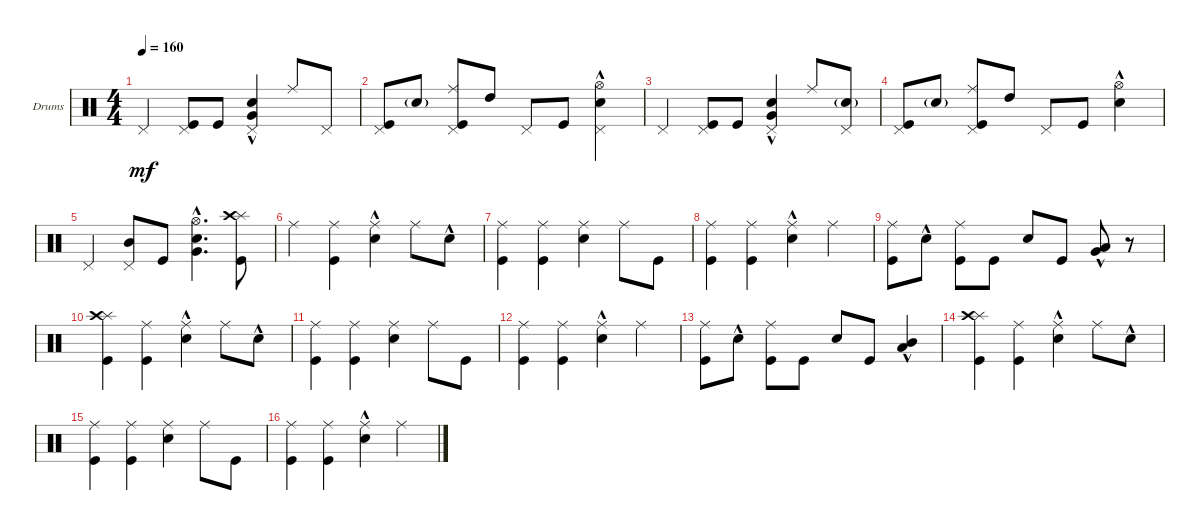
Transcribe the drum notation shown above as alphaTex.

\defaultSystemsLayout 4
\bracketExtendMode groupsimilarinstruments
\firstSystemTrackNameOrientation horizontal
\otherSystemsTrackNameOrientation horizontal
\track ("Drumkit" "Drums") {instrument percussion}
\staff {score}
\articulation defaults
\ts (4 4)
\tempo 160
\clef neutral
\scale
0.333333
\ks c "Pedal Hi-Hat (hit)".4{dy mf}
("Pedal Hi-Hat (hit)" "Kick (hit)").8 "Kick (hit)".8 ("Pedal Hi-Hat (hit)" "Very Low Tom (hit)"{hac} "Snare (hit) 2"{hac}).4 "Ride (middle)".8 "Pedal Hi-Hat (hit)".8 |
\scale
0.333333 ("Kick (hit)" "Pedal Hi-Hat (hit)").8 "Snare (hit) 2"{g}.8 ("Kick (hit)" "Pedal Hi-Hat (hit)" "Ride (middle)").8 "High Tom (hit)".8 "Pedal Hi-Hat (hit)".8 "Kick (hit)".8 ("Snare (hit) 2"{hac} "Pedal Hi-Hat (hit)" "Hi-Hat (open)").4 |
\scale
0.333333 "Pedal Hi-Hat (hit)".4 ("Pedal Hi-Hat (hit)" "Kick (hit)").8 "Kick (hit)".8 ("Pedal Hi-Hat (hit)" "Very Low Tom (hit)"{hac} "Snare (hit) 2"{hac}).4 "Ride (middle)".8 ("Pedal Hi-Hat (hit)" "Snare (hit) 2"{g}).8 |
\scale
0.333333 ("Kick (hit)" "Pedal Hi-Hat (hit)").8 "Snare (hit) 2"{g}.8 ("Kick (hit)" "Pedal Hi-Hat (hit)" "Ride (middle)").8 "High Tom (hit)".8 "Pedal Hi-Hat (hit)".8 "Kick (hit)".8 ("Snare (hit) 2"{hac} "Hi-Hat (open)").4 |
\scale
0.333333 "Pedal Hi-Hat (hit)".4 ("Pedal Hi-Hat (hit)" "Mid Tom (hit)").8 "Kick (hit)".8 ("Very Low Tom (hit)"{hac} "Snare (hit) 2"{hac} "Hi-Hat (open)").4{d} ("Kick (hit)" "Splash (hit)" "Crash high (hit)").8 |
\scale
0.333333 "Ride (middle)".4 ("Kick (hit)" "Ride (middle)").4 ("Snare (hit) 2"{hac} "Ride (middle)").4 "Ride (middle)".8 "Snare (hit) 2"{hac}.8 |
\scale
0.333333 ("Kick (hit)" "Ride (middle)").4 ("Kick (hit)" "Ride (middle)").4 ("Snare (hit) 2" "Ride (middle)").4 "Ride (middle)".8 "Kick (hit)".8 |
\scale
0.333333 ("Kick (hit)" "Ride (middle)").4 ("Kick (hit)" "Ride (middle)").4 ("Snare (hit) 2"{hac} "Ride (middle)").4 "Ride (middle)".4 |
\scale
0.333333 ("Kick (hit)" "Ride (middle)").8 "Snare (hit) 2"{hac}.8 ("Kick (hit)" "Ride (middle)").8 "Kick (hit)".8 "Snare (hit) 2".8 "Kick (hit)".8 ("Very Low Tom (hit)"{hac} "Low Tom (hit)"{hac}).8 r.8 |
\scale
0.333333 ("Kick (hit)" "Splash (hit)" "Crash high (hit)").4 ("Kick (hit)" "Ride (middle)").4 ("Snare (hit) 2"{hac} "Ride (middle)").4 "Ride (middle)".8 "Snare (hit) 2"{hac}.8 |
\scale
0.333333 ("Kick (hit)" "Ride (middle)").4 ("Kick (hit)" "Ride (middle)").4 ("Snare (hit) 2" "Ride (middle)").4 "Ride (middle)".8 "Kick (hit)".8 |
\scale
0.333333 ("Kick (hit)" "Ride (middle)").4 ("Kick (hit)" "Ride (middle)").4 ("Snare (hit) 2"{hac} "Ride (middle)").4 "Ride (middle)".4 |
\scale
0.333333 ("Kick (hit)" "Ride (middle)").8 "Snare (hit) 2"{hac}.8 ("Kick (hit)" "Ride (middle)").8 "Kick (hit)".8 "Snare (hit) 2".8 "Kick (hit)".8 ("Low Tom (hit)"{hac} "Mid Tom (hit)"{hac}).4 |
\scale
0.333333 ("Kick (hit)" "Splash (hit)" "Crash high (hit)").4 ("Kick (hit)" "Ride (middle)").4 ("Snare (hit) 2"{hac} "Ride (middle)").4 "Ride (middle)".8 "Snare (hit) 2"{hac}.8 |
\scale
0.333333 ("Kick (hit)" "Ride (middle)").4 ("Kick (hit)" "Ride (middle)").4 ("Snare (hit) 2" "Ride (middle)").4 "Ride (middle)".8 "Kick (hit)".8 |
\scale
0.333333 ("Kick (hit)" "Ride (middle)").4 ("Kick (hit)" "Ride (middle)").4 ("Snare (hit) 2"{hac} "Ride (middle)").4 "Ride (middle)".4
